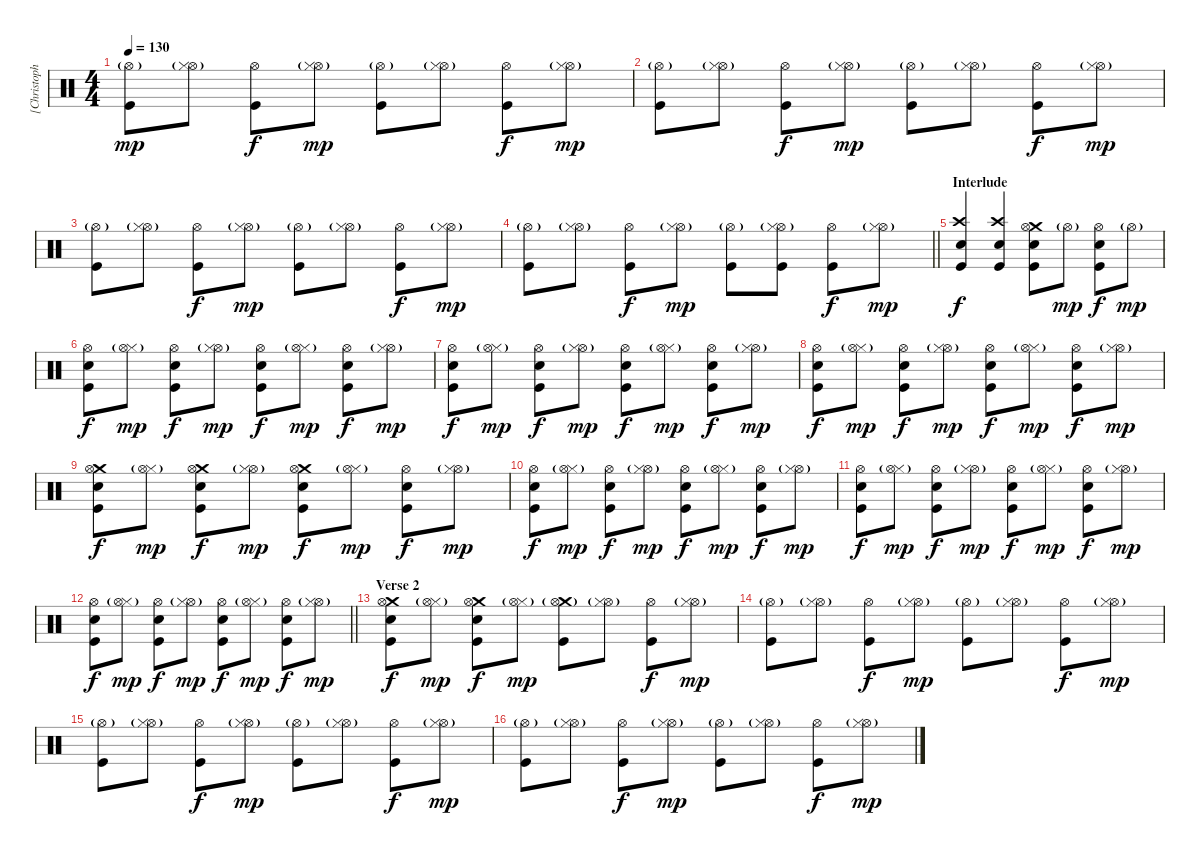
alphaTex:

\track ("[Christoph Schneider]  Drums" "[Christoph") {instrument percussion}
\staff {score}
\articulation defaults
\ts (4 4)
\tempo 130
\clef neutral
\ks c
("Hi-Hat (open)"{g} "Kick (hit)").8{dy mp} ("Hi-Hat (open)"{g} "Hi-Hat (closed)").8 ("Hi-Hat (open)" "Kick (hit)").8{dy f} ("Hi-Hat (open)"{g} "Hi-Hat (closed)").8{dy mp} ("Hi-Hat (open)"{g} "Kick (hit)").8 ("Hi-Hat (open)"{g} "Hi-Hat (closed)").8 ("Hi-Hat (open)" "Kick (hit)").8{dy f} ("Hi-Hat (open)"{g} "Hi-Hat (closed)").8{dy mp} |
("Hi-Hat (open)"{g} "Kick (hit)").8 ("Hi-Hat (open)"{g} "Hi-Hat (closed)").8 ("Hi-Hat (open)" "Kick (hit)").8{dy f} ("Hi-Hat (open)"{g} "Hi-Hat (closed)").8{dy mp} ("Hi-Hat (open)"{g} "Kick (hit)").8 ("Hi-Hat (open)"{g} "Hi-Hat (closed)").8 ("Hi-Hat (open)" "Kick (hit)").8{dy f} ("Hi-Hat (open)"{g} "Hi-Hat (closed)").8{dy mp} |
("Hi-Hat (open)"{g} "Kick (hit)").8 ("Hi-Hat (open)"{g} "Hi-Hat (closed)").8 ("Hi-Hat (open)" "Kick (hit)").8{dy f} ("Hi-Hat (open)"{g} "Hi-Hat (closed)").8{dy mp} ("Hi-Hat (open)"{g} "Kick (hit)").8 ("Hi-Hat (open)"{g} "Hi-Hat (closed)").8 ("Hi-Hat (open)" "Kick (hit)").8{dy f} ("Hi-Hat (open)"{g} "Hi-Hat (closed)").8{dy mp} |
\barLineRight lightlight
("Hi-Hat (open)"{g} "Kick (hit)").8 ("Hi-Hat (open)"{g} "Hi-Hat (closed)").8 ("Hi-Hat (open)" "Kick (hit)").8{dy f} ("Hi-Hat (open)"{g} "Hi-Hat (closed)").8{dy mp} ("Hi-Hat (open)"{g} "Kick (hit)").8 ("Hi-Hat (open)"{g} "Hi-Hat (closed)" "Kick (hit)").8 ("Hi-Hat (open)" "Kick (hit)").8{dy f} ("Hi-Hat (open)"{g} "Hi-Hat (closed)").8{dy mp} |
\section ("" "Interlude")
("Crash high (hit)" "Snare (hit) 2" "Kick (hit)").4{dy f} ("Crash high (hit)" "Snare (hit) 2" "Kick (hit)").4 ("Crash medium (hit)" "Hi-Hat (open)" "Snare (hit) 2" "Kick (hit)").8 "Hi-Hat (open)"{g}.8{dy mp} ("Hi-Hat (open)" "Snare (hit) 2" "Kick (hit)").8{dy f} "Hi-Hat (open)"{g}.8{dy mp} |
("Hi-Hat (open)" "Snare (hit) 2" "Kick (hit)").8{dy f} ("Hi-Hat (closed)" "Hi-Hat (open)"{g}).8{dy mp} ("Hi-Hat (open)" "Snare (hit) 2" "Kick (hit)").8{dy f} ("Hi-Hat (open)"{g} "Hi-Hat (closed)").8{dy mp} ("Hi-Hat (open)" "Snare (hit) 2" "Kick (hit)").8{dy f} ("Hi-Hat (closed)" "Hi-Hat (open)"{g}).8{dy mp} ("Hi-Hat (open)" "Snare (hit) 2" "Kick (hit)").8{dy f} ("Hi-Hat (open)"{g} "Hi-Hat (closed)").8{dy mp} |
("Hi-Hat (open)" "Snare (hit) 2" "Kick (hit)").8{dy f} ("Hi-Hat (closed)" "Hi-Hat (open)"{g}).8{dy mp} ("Hi-Hat (open)" "Snare (hit) 2" "Kick (hit)").8{dy f} ("Hi-Hat (open)"{g} "Hi-Hat (closed)").8{dy mp} ("Hi-Hat (open)" "Snare (hit) 2" "Kick (hit)").8{dy f} ("Hi-Hat (closed)" "Hi-Hat (open)"{g}).8{dy mp} ("Hi-Hat (open)" "Snare (hit) 2" "Kick (hit)").8{dy f} ("Hi-Hat (open)"{g} "Hi-Hat (closed)").8{dy mp} |
("Hi-Hat (open)" "Snare (hit) 2" "Kick (hit)").8{dy f} ("Hi-Hat (closed)" "Hi-Hat (open)"{g}).8{dy mp} ("Hi-Hat (open)" "Snare (hit) 2" "Kick (hit)").8{dy f} ("Hi-Hat (open)"{g} "Hi-Hat (closed)").8{dy mp} ("Hi-Hat (open)" "Snare (hit) 2" "Kick (hit)").8{dy f} ("Hi-Hat (closed)" "Hi-Hat (open)"{g}).8{dy mp} ("Hi-Hat (open)" "Snare (hit) 2" "Kick (hit)").8{dy f} ("Hi-Hat (open)"{g} "Hi-Hat (closed)").8{dy mp} |
("Crash medium (hit)" "Hi-Hat (open)" "Snare (hit) 2" "Kick (hit)").8{dy f} ("Hi-Hat (closed)" "Hi-Hat (open)"{g}).8{dy mp} ("Crash medium (hit)" "Hi-Hat (open)" "Snare (hit) 2" "Kick (hit)").8{dy f} ("Hi-Hat (open)"{g} "Hi-Hat (closed)").8{dy mp} ("Crash medium (hit)" "Hi-Hat (open)" "Snare (hit) 2" "Kick (hit)").8{dy f} ("Hi-Hat (closed)" "Hi-Hat (open)"{g}).8{dy mp} ("Hi-Hat (open)" "Snare (hit) 2" "Kick (hit)").8{dy f} ("Hi-Hat (open)"{g} "Hi-Hat (closed)").8{dy mp} |
("Hi-Hat (open)" "Snare (hit) 2" "Kick (hit)").8{dy f} ("Hi-Hat (closed)" "Hi-Hat (open)"{g}).8{dy mp} ("Hi-Hat (open)" "Snare (hit) 2" "Kick (hit)").8{dy f} ("Hi-Hat (open)"{g} "Hi-Hat (closed)").8{dy mp} ("Hi-Hat (open)" "Snare (hit) 2" "Kick (hit)").8{dy f} ("Hi-Hat (closed)" "Hi-Hat (open)"{g}).8{dy mp} ("Hi-Hat (open)" "Snare (hit) 2" "Kick (hit)").8{dy f} ("Hi-Hat (open)"{g} "Hi-Hat (closed)").8{dy mp} |
("Hi-Hat (open)" "Snare (hit) 2" "Kick (hit)").8{dy f} ("Hi-Hat (closed)" "Hi-Hat (open)"{g}).8{dy mp} ("Hi-Hat (open)" "Snare (hit) 2" "Kick (hit)").8{dy f} ("Hi-Hat (open)"{g} "Hi-Hat (closed)").8{dy mp} ("Hi-Hat (open)" "Snare (hit) 2" "Kick (hit)").8{dy f} ("Hi-Hat (closed)" "Hi-Hat (open)"{g}).8{dy mp} ("Hi-Hat (open)" "Snare (hit) 2" "Kick (hit)").8{dy f} ("Hi-Hat (open)"{g} "Hi-Hat (closed)").8{dy mp} |
\barLineRight lightlight
("Hi-Hat (open)" "Snare (hit) 2" "Kick (hit)").8{dy f} ("Hi-Hat (closed)" "Hi-Hat (open)"{g}).8{dy mp} ("Hi-Hat (open)" "Snare (hit) 2" "Kick (hit)").8{dy f} ("Hi-Hat (open)"{g} "Hi-Hat (closed)").8{dy mp} ("Hi-Hat (open)" "Snare (hit) 2" "Kick (hit)").8{dy f} ("Hi-Hat (closed)" "Hi-Hat (open)"{g}).8{dy mp} ("Hi-Hat (open)" "Snare (hit) 2" "Kick (hit)").8{dy f} ("Hi-Hat (open)"{g} "Hi-Hat (closed)").8{dy mp} |
\section ("" "Verse 2")
("Crash medium (hit)" "Hi-Hat (open)" "Snare (hit) 2" "Kick (hit)").8{dy f} ("Hi-Hat (closed)" "Hi-Hat (open)"{g}).8{dy mp} ("Crash medium (hit)" "Hi-Hat (open)" "Snare (hit) 2" "Kick (hit)").8{dy f} ("Hi-Hat (closed)" "Hi-Hat (open)"{g}).8{dy mp} ("Crash medium (hit)" "Hi-Hat (open)"{g} "Kick (hit)").8 ("Hi-Hat (open)"{g} "Hi-Hat (closed)").8 ("Hi-Hat (open)" "Kick (hit)").8{dy f} ("Hi-Hat (open)"{g} "Hi-Hat (closed)").8{dy mp} |
("Hi-Hat (open)"{g} "Kick (hit)").8 ("Hi-Hat (open)"{g} "Hi-Hat (closed)").8 ("Hi-Hat (open)" "Kick (hit)").8{dy f} ("Hi-Hat (open)"{g} "Hi-Hat (closed)").8{dy mp} ("Hi-Hat (open)"{g} "Kick (hit)").8 ("Hi-Hat (open)"{g} "Hi-Hat (closed)").8 ("Hi-Hat (open)" "Kick (hit)").8{dy f} ("Hi-Hat (open)"{g} "Hi-Hat (closed)").8{dy mp} |
("Hi-Hat (open)"{g} "Kick (hit)").8 ("Hi-Hat (open)"{g} "Hi-Hat (closed)").8 ("Hi-Hat (open)" "Kick (hit)").8{dy f} ("Hi-Hat (open)"{g} "Hi-Hat (closed)").8{dy mp} ("Hi-Hat (open)"{g} "Kick (hit)").8 ("Hi-Hat (open)"{g} "Hi-Hat (closed)").8 ("Hi-Hat (open)" "Kick (hit)").8{dy f} ("Hi-Hat (open)"{g} "Hi-Hat (closed)").8{dy mp} |
("Hi-Hat (open)"{g} "Kick (hit)").8 ("Hi-Hat (open)"{g} "Hi-Hat (closed)").8 ("Hi-Hat (open)" "Kick (hit)").8{dy f} ("Hi-Hat (open)"{g} "Hi-Hat (closed)").8{dy mp} ("Hi-Hat (open)"{g} "Kick (hit)").8 ("Hi-Hat (open)"{g} "Hi-Hat (closed)").8 ("Hi-Hat (open)" "Kick (hit)").8{dy f} ("Hi-Hat (open)"{g} "Hi-Hat (closed)").8{dy mp}
